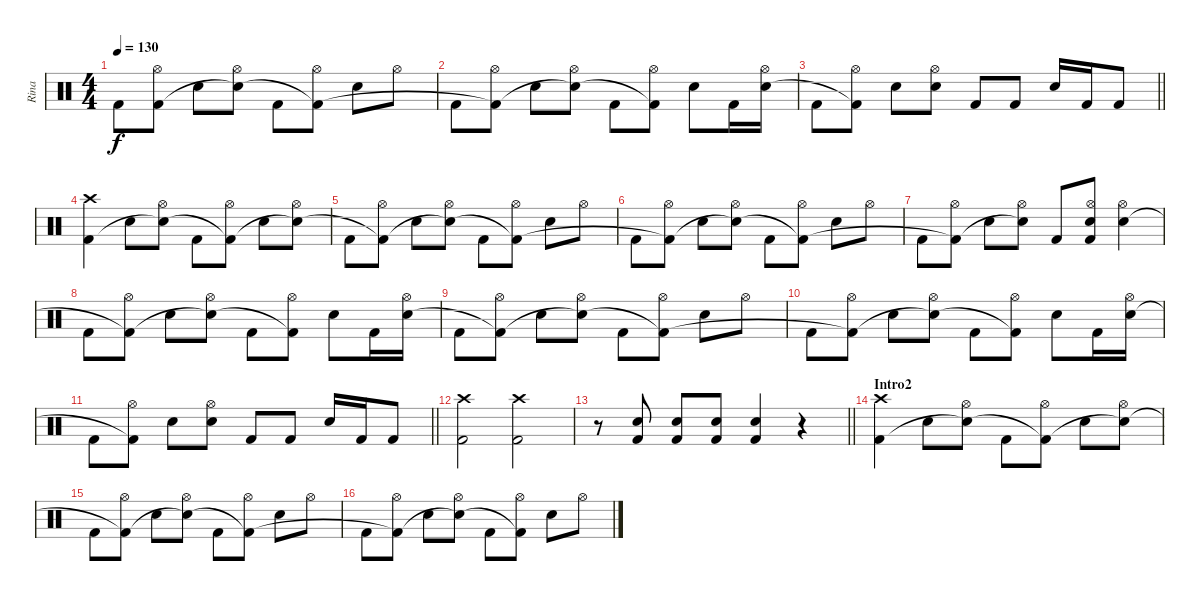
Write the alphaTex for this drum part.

\track ("Rina" "Rina") {instrument percussion}
\staff {score}
\articulation defaults
\ts (4 4)
\tempo 130
\clef neutral
\ks c "Kick (hit) 2".8{dy f}
("Hi-Hat (open)" "Kick (hit) 2"{t}).8 "Snare (hit) 2".8 ("Hi-Hat (open)" "Snare (hit) 2"{t}).8 "Kick (hit) 2".8 ("Hi-Hat (open)" "Kick (hit) 2"{t}).8 "Snare (hit) 2".8 "Hi-Hat (open)".8 |
"Kick (hit) 2".8 ("Hi-Hat (open)" "Kick (hit) 2"{t}).8 "Snare (hit) 2".8 ("Hi-Hat (open)" "Snare (hit) 2"{t}).8 "Kick (hit) 2".8 ("Hi-Hat (open)" "Kick (hit) 2"{t}).8 "Snare (hit) 2".8 "Kick (hit) 2".16 ("Hi-Hat (open)" "Snare (hit) 2").16 |
\barLineRight lightlight "Kick (hit) 2".8
("Hi-Hat (open)" "Kick (hit) 2"{t}).8 "Snare (hit) 2".8 ("Hi-Hat (open)" "Snare (hit) 2").8 "Kick (hit) 2".8 "Kick (hit) 2".8 "Snare (hit) 2".16 "Kick (hit) 2".16 "Kick (hit) 2".8 |
("Crash high (hit)" "Kick (hit) 2").4 "Snare (hit) 2".8 ("Hi-Hat (open)" "Snare (hit) 2"{t}).8 "Kick (hit) 2".8 ("Hi-Hat (open)" "Kick (hit) 2"{t}).8 "Snare (hit) 2".8 ("Hi-Hat (open)" "Snare (hit) 2"{t}).8 |
"Kick (hit) 2".8 ("Hi-Hat (open)" "Kick (hit) 2"{t}).8 "Snare (hit) 2".8 ("Hi-Hat (open)" "Snare (hit) 2"{t}).8 "Kick (hit) 2".8 ("Hi-Hat (open)" "Kick (hit) 2"{t}).8 "Snare (hit) 2".8 "Hi-Hat (open)".8 |
"Kick (hit) 2".8 ("Hi-Hat (open)" "Kick (hit) 2"{t}).8 "Snare (hit) 2".8 ("Hi-Hat (open)" "Snare (hit) 2"{t}).8 "Kick (hit) 2".8 ("Hi-Hat (open)" "Kick (hit) 2"{t}).8 "Snare (hit) 2".8 "Hi-Hat (open)".8 |
"Kick (hit) 2".8 ("Hi-Hat (open)" "Kick (hit) 2"{t}).8 "Snare (hit) 2".8 ("Hi-Hat (open)" "Snare (hit) 2"{t}).8 "Kick (hit) 2".8 ("Hi-Hat (open)" "Snare (hit) 2" "Kick (hit) 2").8 ("Hi-Hat (open)" "Snare (hit) 2").4 |
"Kick (hit) 2".8 ("Hi-Hat (open)" "Kick (hit) 2"{t}).8 "Snare (hit) 2".8 ("Hi-Hat (open)" "Snare (hit) 2"{t}).8 "Kick (hit) 2".8 ("Hi-Hat (open)" "Kick (hit) 2"{t}).8 "Snare (hit) 2".8 "Kick (hit) 2".16 ("Hi-Hat (open)" "Snare (hit) 2").16 |
"Kick (hit) 2".8 ("Hi-Hat (open)" "Kick (hit) 2"{t}).8 "Snare (hit) 2".8 ("Hi-Hat (open)" "Snare (hit) 2"{t}).8 "Kick (hit) 2".8 ("Hi-Hat (open)" "Kick (hit) 2"{t}).8 "Snare (hit) 2".8 "Hi-Hat (open)".8 |
"Kick (hit) 2".8 ("Hi-Hat (open)" "Kick (hit) 2"{t}).8 "Snare (hit) 2".8 ("Hi-Hat (open)" "Snare (hit) 2"{t}).8 "Kick (hit) 2".8 ("Hi-Hat (open)" "Kick (hit) 2"{t}).8 "Snare (hit) 2".8 "Kick (hit) 2".16 ("Hi-Hat (open)" "Snare (hit) 2").16 |
\barLineRight lightlight "Kick (hit) 2".8
("Hi-Hat (open)" "Kick (hit) 2"{t}).8 "Snare (hit) 2".8 ("Hi-Hat (open)" "Snare (hit) 2").8 "Kick (hit) 2".8 "Kick (hit) 2".8 "Snare (hit) 2".16 "Kick (hit) 2".16 "Kick (hit) 2".8 |
("Crash high (hit)" "Kick (hit) 2").2 ("Crash high (hit)" "Kick (hit) 2").2 |
\barLineRight lightlight
r.8 ("Snare (hit) 2" "Kick (hit) 2").8 ("Snare (hit) 2" "Kick (hit) 2").8 ("Snare (hit) 2" "Kick (hit) 2").8 ("Snare (hit) 2" "Kick (hit) 2").4 r.4 |
\section ("" "Intro2")
("Crash high (hit)" "Kick (hit) 2").4 "Snare (hit) 2".8 ("Hi-Hat (open)" "Snare (hit) 2"{t}).8 "Kick (hit) 2".8 ("Hi-Hat (open)" "Kick (hit) 2"{t}).8 "Snare (hit) 2".8 ("Hi-Hat (open)" "Snare (hit) 2"{t}).8 |
"Kick (hit) 2".8 ("Hi-Hat (open)" "Kick (hit) 2"{t}).8 "Snare (hit) 2".8 ("Hi-Hat (open)" "Snare (hit) 2"{t}).8 "Kick (hit) 2".8 ("Hi-Hat (open)" "Kick (hit) 2"{t}).8 "Snare (hit) 2".8 "Hi-Hat (open)".8 |
"Kick (hit) 2".8 ("Hi-Hat (open)" "Kick (hit) 2"{t}).8 "Snare (hit) 2".8 ("Hi-Hat (open)" "Snare (hit) 2"{t}).8 "Kick (hit) 2".8 ("Hi-Hat (open)" "Kick (hit) 2"{t}).8 "Snare (hit) 2".8 "Hi-Hat (open)".8
